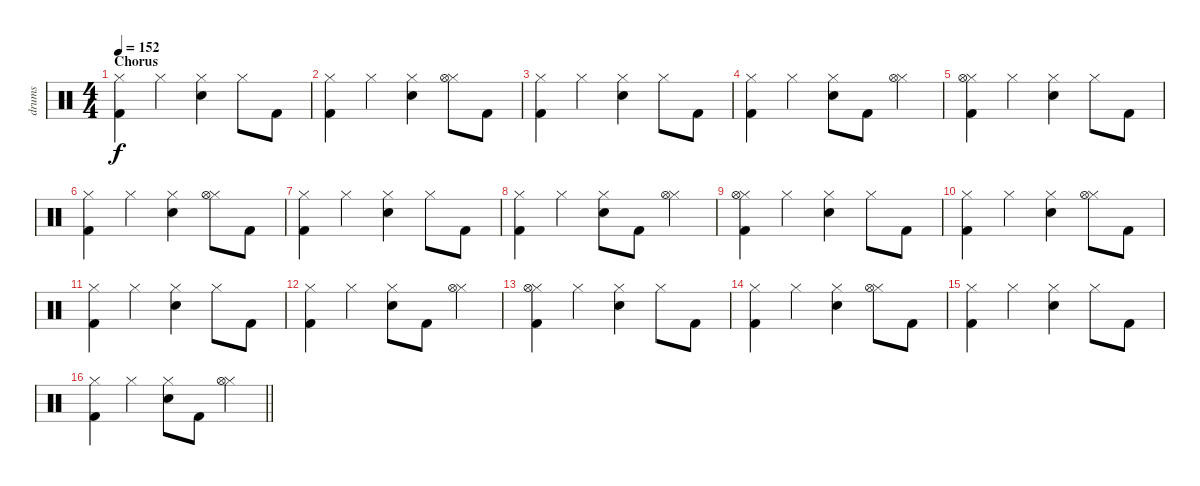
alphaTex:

\track ("drums" "drums") {instrument percussion}
\staff {score}
\articulation defaults
\ts (4 4)
\section ("" "Chorus")
\tempo 152
\clef neutral
\ks c
("Hi-Hat (closed)" "Kick (hit) 2").4{dy f} "Hi-Hat (closed)".4 ("Hi-Hat (closed)" "Electric Snare (hit)").4 "Hi-Hat (closed)".8 "Kick (hit) 2".8 |
("Hi-Hat (closed)" "Kick (hit) 2").4 "Hi-Hat (closed)".4 ("Hi-Hat (closed)" "Electric Snare (hit)").4 ("Hi-Hat (closed)" "Hi-Hat (open)").8 "Kick (hit) 2".8 |
("Hi-Hat (closed)" "Kick (hit) 2").4 "Hi-Hat (closed)".4 ("Hi-Hat (closed)" "Electric Snare (hit)").4 "Hi-Hat (closed)".8 "Kick (hit) 2".8 |
("Hi-Hat (closed)" "Kick (hit) 2").4 "Hi-Hat (closed)".4 ("Hi-Hat (closed)" "Electric Snare (hit)").8 "Kick (hit) 2".8 ("Hi-Hat (closed)" "Hi-Hat (open)").4 |
("Hi-Hat (closed)" "Hi-Hat (open)" "Kick (hit) 2").4 "Hi-Hat (closed)".4 ("Hi-Hat (closed)" "Electric Snare (hit)").4 "Hi-Hat (closed)".8 "Kick (hit) 2".8 |
("Hi-Hat (closed)" "Kick (hit) 2").4 "Hi-Hat (closed)".4 ("Hi-Hat (closed)" "Electric Snare (hit)").4 ("Hi-Hat (closed)" "Hi-Hat (open)").8 "Kick (hit) 2".8 |
("Hi-Hat (closed)" "Kick (hit) 2").4 "Hi-Hat (closed)".4 ("Hi-Hat (closed)" "Electric Snare (hit)").4 "Hi-Hat (closed)".8 "Kick (hit) 2".8 |
("Hi-Hat (closed)" "Kick (hit) 2").4 "Hi-Hat (closed)".4 ("Hi-Hat (closed)" "Electric Snare (hit)").8 "Kick (hit) 2".8 ("Hi-Hat (closed)" "Hi-Hat (open)").4 |
("Hi-Hat (closed)" "Hi-Hat (open)" "Kick (hit) 2").4 "Hi-Hat (closed)".4 ("Hi-Hat (closed)" "Electric Snare (hit)").4 "Hi-Hat (closed)".8 "Kick (hit) 2".8 |
("Hi-Hat (closed)" "Kick (hit) 2").4 "Hi-Hat (closed)".4 ("Hi-Hat (closed)" "Electric Snare (hit)").4 ("Hi-Hat (closed)" "Hi-Hat (open)").8 "Kick (hit) 2".8 |
("Hi-Hat (closed)" "Kick (hit) 2").4 "Hi-Hat (closed)".4 ("Hi-Hat (closed)" "Electric Snare (hit)").4 "Hi-Hat (closed)".8 "Kick (hit) 2".8 |
("Hi-Hat (closed)" "Kick (hit) 2").4 "Hi-Hat (closed)".4 ("Hi-Hat (closed)" "Electric Snare (hit)").8 "Kick (hit) 2".8 ("Hi-Hat (closed)" "Hi-Hat (open)").4 |
("Hi-Hat (closed)" "Hi-Hat (open)" "Kick (hit) 2").4 "Hi-Hat (closed)".4 ("Hi-Hat (closed)" "Electric Snare (hit)").4 "Hi-Hat (closed)".8 "Kick (hit) 2".8 |
("Hi-Hat (closed)" "Kick (hit) 2").4 "Hi-Hat (closed)".4 ("Hi-Hat (closed)" "Electric Snare (hit)").4 ("Hi-Hat (closed)" "Hi-Hat (open)").8 "Kick (hit) 2".8 |
("Hi-Hat (closed)" "Kick (hit) 2").4 "Hi-Hat (closed)".4 ("Hi-Hat (closed)" "Electric Snare (hit)").4 "Hi-Hat (closed)".8 "Kick (hit) 2".8 |
\barLineRight lightlight
("Hi-Hat (closed)" "Kick (hit) 2").4 "Hi-Hat (closed)".4 ("Hi-Hat (closed)" "Electric Snare (hit)").8 "Kick (hit) 2".8 ("Hi-Hat (closed)" "Hi-Hat (open)").4
